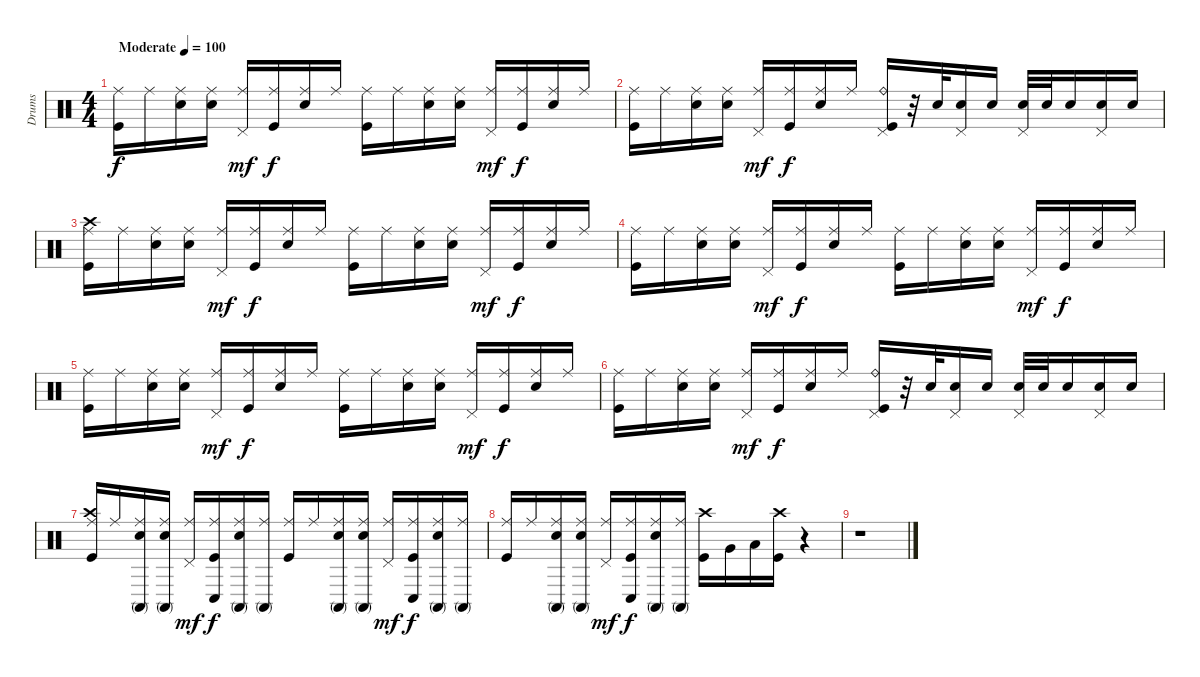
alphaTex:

\track ("Drums" "Drums") {instrument percussion}
\staff {score}
\articulation defaults
\ts (4 4)
\tempo (100 "Moderate")
\clef neutral
\ks c
("Kick (hit)" "Ride (middle)").16{dy f} "Ride (middle)".16 ("Ride (middle)" "Electric Snare (hit)").16 ("Electric Snare (hit)" "Ride (middle)").16 ("Ride (middle)" "Pedal Hi-Hat (hit)").16{dy mf} ("Kick (hit)" "Ride (middle)").16{dy f} ("Electric Snare (hit)" "Ride (middle)").16 "Ride (middle)".16 ("Kick (hit)" "Ride (middle)").16 "Ride (middle)".16 ("Electric Snare (hit)" "Ride (middle)").16 ("Electric Snare (hit)" "Ride (middle)").16 ("Pedal Hi-Hat (hit)" "Ride (middle)").16{dy mf} ("Kick (hit)" "Ride (middle)").16{dy f} ("Electric Snare (hit)" "Ride (middle)").16 "Ride (middle)".16 |
("Kick (hit)" "Ride (middle)").16 "Ride (middle)".16 ("Electric Snare (hit)" "Ride (middle)").16 ("Electric Snare (hit)" "Ride (middle)").16 ("Pedal Hi-Hat (hit)" "Ride (middle)").16{dy mf} ("Kick (hit)" "Ride (middle)").16{dy f} ("Electric Snare (hit)" "Ride (middle)").16 "Ride (middle)".16 ("Kick (hit)" "Pedal Hi-Hat (hit)" "Ride (bell)").16 r.32 "Electric Snare (hit)".32 ("Pedal Hi-Hat (hit)" "Electric Snare (hit)").16 "Electric Snare (hit)".16 ("Pedal Hi-Hat (hit)" "Electric Snare (hit)").32 "Electric Snare (hit)".32 "Electric Snare (hit)".16 ("Electric Snare (hit)" "Pedal Hi-Hat (hit)").16 "Electric Snare (hit)".16 |
("Crash high (hit)" "Kick (hit)" "Ride (middle)").16 "Ride (middle)".16 ("Ride (middle)" "Electric Snare (hit)").16 ("Electric Snare (hit)" "Ride (middle)").16 ("Ride (middle)" "Pedal Hi-Hat (hit)").16{dy mf} ("Kick (hit)" "Ride (middle)").16{dy f} ("Electric Snare (hit)" "Ride (middle)").16 "Ride (middle)".16 ("Kick (hit)" "Ride (middle)").16 "Ride (middle)".16 ("Electric Snare (hit)" "Ride (middle)").16 ("Electric Snare (hit)" "Ride (middle)").16 ("Pedal Hi-Hat (hit)" "Ride (middle)").16{dy mf} ("Kick (hit)" "Ride (middle)").16{dy f} ("Electric Snare (hit)" "Ride (middle)").16 "Ride (middle)".16 |
("Kick (hit)" "Ride (middle)").16 "Ride (middle)".16 ("Ride (middle)" "Electric Snare (hit)").16 ("Electric Snare (hit)" "Ride (middle)").16 ("Ride (middle)" "Pedal Hi-Hat (hit)").16{dy mf} ("Kick (hit)" "Ride (middle)").16{dy f} ("Electric Snare (hit)" "Ride (middle)").16 "Ride (middle)".16 ("Kick (hit)" "Ride (middle)").16 "Ride (middle)".16 ("Electric Snare (hit)" "Ride (middle)").16 ("Electric Snare (hit)" "Ride (middle)").16 ("Pedal Hi-Hat (hit)" "Ride (middle)").16{dy mf} ("Kick (hit)" "Ride (middle)").16{dy f} ("Electric Snare (hit)" "Ride (middle)").16 "Ride (middle)".16 |
("Kick (hit)" "Ride (middle)").16 "Ride (middle)".16 ("Ride (middle)" "Electric Snare (hit)").16 ("Electric Snare (hit)" "Ride (middle)").16 ("Ride (middle)" "Pedal Hi-Hat (hit)").16{dy mf} ("Kick (hit)" "Ride (middle)").16{dy f} ("Electric Snare (hit)" "Ride (middle)").16 "Ride (middle)".16 ("Kick (hit)" "Ride (middle)").16 "Ride (middle)".16 ("Electric Snare (hit)" "Ride (middle)").16 ("Electric Snare (hit)" "Ride (middle)").16 ("Pedal Hi-Hat (hit)" "Ride (middle)").16{dy mf} ("Kick (hit)" "Ride (middle)").16{dy f} ("Electric Snare (hit)" "Ride (middle)").16 "Ride (middle)".16 |
("Kick (hit)" "Ride (middle)").16 "Ride (middle)".16 ("Electric Snare (hit)" "Ride (middle)").16 ("Electric Snare (hit)" "Ride (middle)").16 ("Pedal Hi-Hat (hit)" "Ride (middle)").16{dy mf} ("Kick (hit)" "Ride (middle)").16{dy f} ("Electric Snare (hit)" "Ride (middle)").16 "Ride (middle)".16 ("Kick (hit)" "Pedal Hi-Hat (hit)" "Ride (bell)").16 r.32 "Electric Snare (hit)".32 ("Pedal Hi-Hat (hit)" "Electric Snare (hit)").16 "Electric Snare (hit)".16 ("Pedal Hi-Hat (hit)" "Electric Snare (hit)").32 "Electric Snare (hit)".32 "Electric Snare (hit)".16 ("Electric Snare (hit)" "Pedal Hi-Hat (hit)").16 "Electric Snare (hit)".16 |
("Crash high (hit)" "Kick (hit)" "Ride (middle)").16 "Ride (middle)".16 ("Ride (middle)" "Electric Snare (hit)" "Conga high (mute)").16 ("Electric Snare (hit)" "Ride (middle)" "Conga high (mute)").16 ("Ride (middle)" "Pedal Hi-Hat (hit)").16{dy mf} ("Kick (hit)" "Ride (middle)" "Conga low (hit)").16{dy f} ("Conga high (mute)" "Electric Snare (hit)" "Ride (middle)").16 ("Conga high (mute)" "Ride (middle)").16 ("Kick (hit)" "Ride (middle)").16 "Ride (middle)".16 ("Conga high (mute)" "Electric Snare (hit)" "Ride (middle)").16 ("Conga high (mute)" "Electric Snare (hit)" "Ride (middle)").16 ("Pedal Hi-Hat (hit)" "Ride (middle)").16{dy mf} ("Kick (hit)" "Ride (middle)" "Conga low (hit)").16{dy f} ("Conga high (mute)" "Electric Snare (hit)" "Ride (middle)").16 ("Conga high (mute)" "Ride (middle)").16 |
("Kick (hit)" "Ride (middle)").16 "Ride (middle)".16 ("Conga high (mute)" "Ride (middle)" "Electric Snare (hit)").16 ("Conga high (mute)" "Electric Snare (hit)" "Ride (middle)").16 ("Ride (middle)" "Pedal Hi-Hat (hit)").16{dy mf} ("Kick (hit)" "Ride (middle)" "Conga low (hit)").16{dy f} ("Conga high (mute)" "Electric Snare (hit)" "Ride (middle)").16 ("Conga high (mute)" "Ride (middle)").16 ("Crash high (hit)" "Kick (hit)").16 "Very Low Tom (hit)".16 "Low Floor Tom (hit)".16 ("Crash high (hit)" "Kick (hit)").16 r.4 |
r.1
